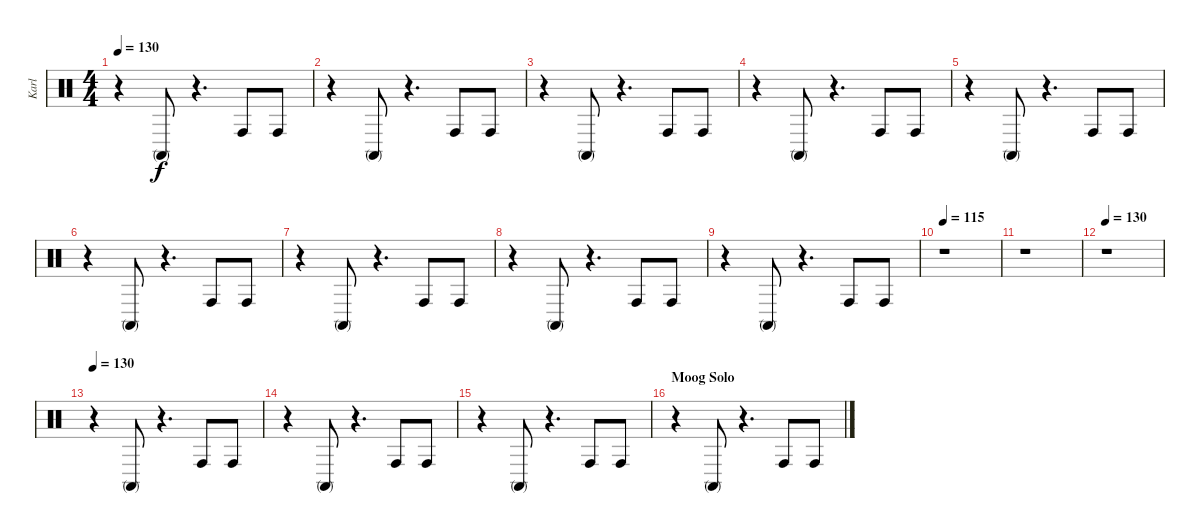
\track ("Karl" "Karl") {instrument percussion}
\staff {score}
\articulation defaults
\ts (4 4)
\tempo 130
\clef neutral
\ks c
r.4{dy f} "Conga high (mute)".8 r.4{d} "Conga high (hit)".8 "Conga high (hit)".8 |
r.4 "Conga high (mute)".8 r.4{d} "Conga high (hit)".8 "Conga high (hit)".8 |
r.4 "Conga high (mute)".8 r.4{d} "Conga high (hit)".8 "Conga high (hit)".8 |
r.4 "Conga high (mute)".8 r.4{d} "Conga high (hit)".8 "Conga high (hit)".8 |
r.4 "Conga high (mute)".8 r.4{d} "Conga high (hit)".8 "Conga high (hit)".8 |
r.4 "Conga high (mute)".8 r.4{d} "Conga high (hit)".8 "Conga high (hit)".8 |
r.4 "Conga high (mute)".8 r.4{d} "Conga high (hit)".8 "Conga high (hit)".8 |
r.4 "Conga high (mute)".8 r.4{d} "Conga high (hit)".8 "Conga high (hit)".8 |
r.4 "Conga high (mute)".8 r.4{d} "Conga high (hit)".8 "Conga high (hit)".8 |
\tempo 115
r.1 |
r.1 |
\tempo 130
r.1 |
\tempo 130
r.4 "Conga high (mute)".8 r.4{d} "Conga high (hit)".8 "Conga high (hit)".8 |
r.4 "Conga high (mute)".8 r.4{d} "Conga high (hit)".8 "Conga high (hit)".8 |
r.4 "Conga high (mute)".8 r.4{d} "Conga high (hit)".8 "Conga high (hit)".8 |
\section ("" "Moog Solo")
r.4 "Conga high (mute)".8 r.4{d} "Conga high (hit)".8 "Conga high (hit)".8
